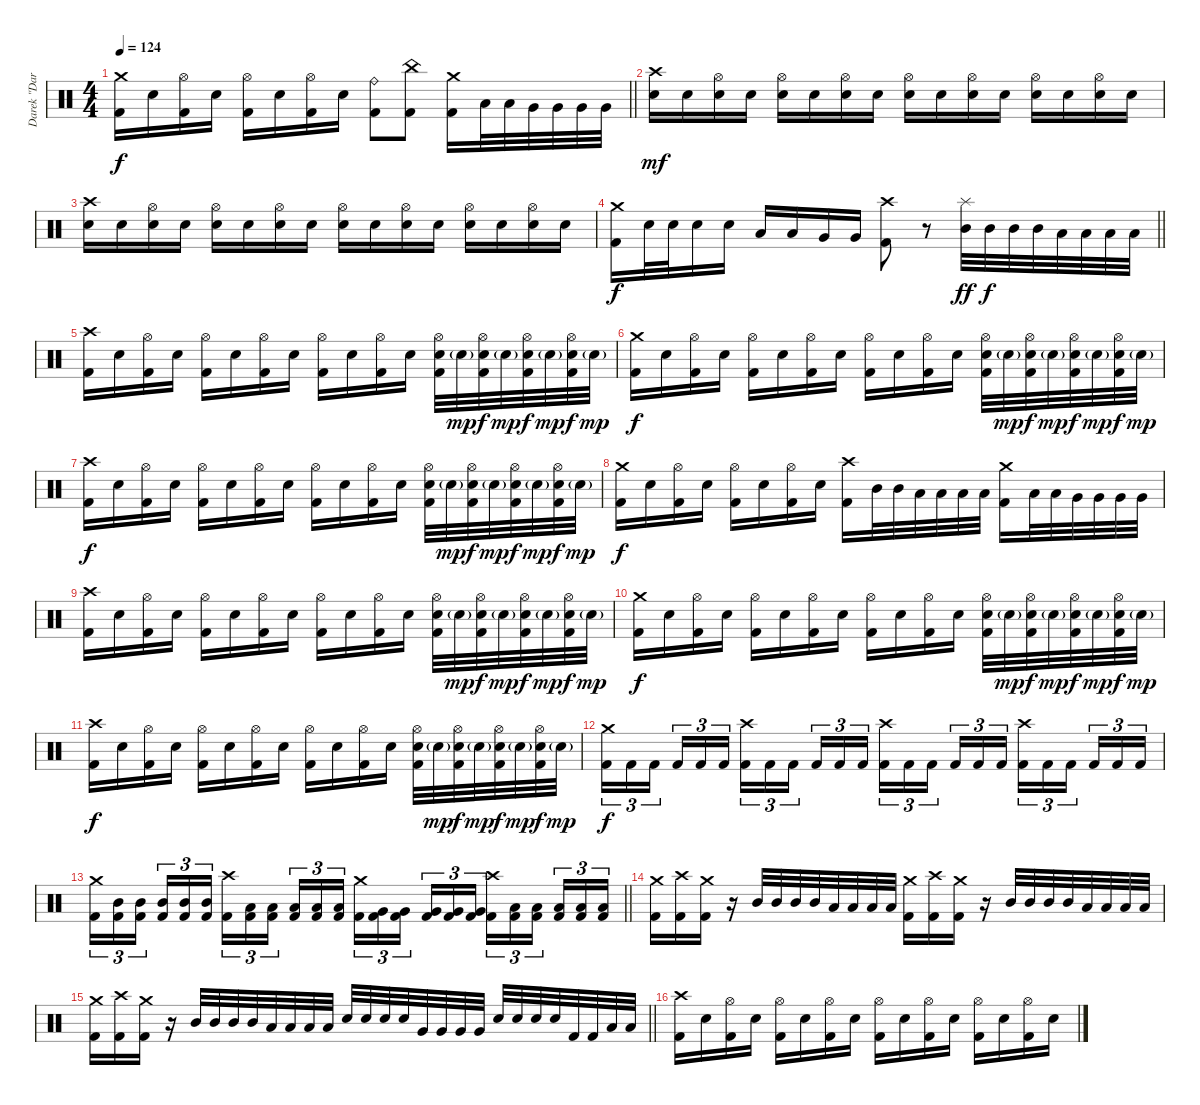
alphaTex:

\track ("Darek \"Daray\" Brzozowski " "Darek \"Dar") {instrument percussion}
\staff {score}
\articulation defaults
\ts (4 4)
\tempo 124
\clef neutral
\barLineRight lightlight
\ks c
("Crash medium (hit)" "Kick (hit) 2").16{dy f} "Electric Snare (hit)".16 ("Hi-Hat (open)" "Kick (hit) 2").16 "Electric Snare (hit)".16 ("Hi-Hat (open)" "Kick (hit) 2").16 "Electric Snare (hit)".16 ("Hi-Hat (open)" "Kick (hit) 2").16 "Electric Snare (hit)".16 ("Ride (bell)" "Kick (hit) 2").8 ("China (hit)" "Kick (hit) 2").8 ("Crash medium (hit)" "Kick (hit) 2").16 "Low Tom (hit)".32 "Low Tom (hit)".32 "Very Low Tom (hit)".32 "Very Low Tom (hit)".32 "Very Low Tom (hit)".32 "Very Low Tom (hit)".32 |
("Crash high (hit)" "Electric Snare (hit)").16{dy mf} "Electric Snare (hit)".16 ("Hi-Hat (open)" "Electric Snare (hit)").16 "Electric Snare (hit)".16 ("Hi-Hat (open)" "Electric Snare (hit)").16 "Electric Snare (hit)".16 ("Hi-Hat (open)" "Electric Snare (hit)").16 "Electric Snare (hit)".16 ("Hi-Hat (open)" "Electric Snare (hit)").16 "Electric Snare (hit)".16 ("Hi-Hat (open)" "Electric Snare (hit)").16 "Electric Snare (hit)".16 ("Hi-Hat (open)" "Electric Snare (hit)").16 "Electric Snare (hit)".16 ("Hi-Hat (open)" "Electric Snare (hit)").16 "Electric Snare (hit)".16 |
("Crash high (hit)" "Electric Snare (hit)").16 "Electric Snare (hit)".16 ("Hi-Hat (open)" "Electric Snare (hit)").16 "Electric Snare (hit)".16 ("Hi-Hat (open)" "Electric Snare (hit)").16 "Electric Snare (hit)".16 ("Hi-Hat (open)" "Electric Snare (hit)").16 "Electric Snare (hit)".16 ("Hi-Hat (open)" "Electric Snare (hit)").16 "Electric Snare (hit)".16 ("Hi-Hat (open)" "Electric Snare (hit)").16 "Electric Snare (hit)".16 ("Hi-Hat (open)" "Electric Snare (hit)").16 "Electric Snare (hit)".16 ("Hi-Hat (open)" "Electric Snare (hit)").16 "Electric Snare (hit)".16 |
\barLineRight lightlight
("Crash medium (hit)" "Kick (hit) 2").16{dy f} "Electric Snare (hit)".32 "Electric Snare (hit)".32 "Electric Snare (hit)".16 "Electric Snare (hit)".16 "Low Tom (hit)".16 "Low Tom (hit)".16 "Very Low Tom (hit)".16 "Very Low Tom (hit)".16 ("Crash high (hit)" "Kick (hit) 2").8 r.8 ("Splash (hit)" "Mid Tom (hit)").32{dy ff} "Mid Tom (hit)".32{dy f} "Mid Tom (hit)".32 "Mid Tom (hit)".32 "Low Tom (hit)".32 "Low Tom (hit)".32 "Low Tom (hit)".32 "Low Tom (hit)".32 |
("Crash high (hit)" "Kick (hit) 2").16 "Electric Snare (hit)".16 ("Hi-Hat (open)" "Kick (hit) 2").16 "Electric Snare (hit)".16 ("Hi-Hat (open)" "Kick (hit) 2").16 "Electric Snare (hit)".16 ("Hi-Hat (open)" "Kick (hit) 2").16 "Electric Snare (hit)".16 ("Hi-Hat (open)" "Kick (hit) 2").16 "Electric Snare (hit)".16 ("Hi-Hat (open)" "Kick (hit) 2").16 "Electric Snare (hit)".16 ("Hi-Hat (open)" "Electric Snare (hit)" "Kick (hit) 2").32 "Electric Snare (hit)"{g}.32{dy mp} ("Hi-Hat (open)" "Electric Snare (hit)" "Kick (hit) 2").32{dy f} "Electric Snare (hit)"{g}.32{dy mp} ("Hi-Hat (open)" "Electric Snare (hit)" "Kick (hit) 2").32{dy f} "Electric Snare (hit)"{g}.32{dy mp} ("Hi-Hat (open)" "Electric Snare (hit)" "Kick (hit) 2").32{dy f} "Electric Snare (hit)"{g}.32{dy mp} |
("Crash medium (hit)" "Kick (hit) 2").16{dy f} "Electric Snare (hit)".16 ("Hi-Hat (open)" "Kick (hit) 2").16 "Electric Snare (hit)".16 ("Hi-Hat (open)" "Kick (hit) 2").16 "Electric Snare (hit)".16 ("Hi-Hat (open)" "Kick (hit) 2").16 "Electric Snare (hit)".16 ("Hi-Hat (open)" "Kick (hit) 2").16 "Electric Snare (hit)".16 ("Hi-Hat (open)" "Kick (hit) 2").16 "Electric Snare (hit)".16 ("Hi-Hat (open)" "Electric Snare (hit)" "Kick (hit) 2").32 "Electric Snare (hit)"{g}.32{dy mp} ("Hi-Hat (open)" "Electric Snare (hit)" "Kick (hit) 2").32{dy f} "Electric Snare (hit)"{g}.32{dy mp} ("Hi-Hat (open)" "Electric Snare (hit)" "Kick (hit) 2").32{dy f} "Electric Snare (hit)"{g}.32{dy mp} ("Hi-Hat (open)" "Electric Snare (hit)" "Kick (hit) 2").32{dy f} "Electric Snare (hit)"{g}.32{dy mp} |
("Crash high (hit)" "Kick (hit) 2").16{dy f} "Electric Snare (hit)".16 ("Hi-Hat (open)" "Kick (hit) 2").16 "Electric Snare (hit)".16 ("Hi-Hat (open)" "Kick (hit) 2").16 "Electric Snare (hit)".16 ("Hi-Hat (open)" "Kick (hit) 2").16 "Electric Snare (hit)".16 ("Hi-Hat (open)" "Kick (hit) 2").16 "Electric Snare (hit)".16 ("Hi-Hat (open)" "Kick (hit) 2").16 "Electric Snare (hit)".16 ("Hi-Hat (open)" "Electric Snare (hit)" "Kick (hit) 2").32 "Electric Snare (hit)"{g}.32{dy mp} ("Hi-Hat (open)" "Electric Snare (hit)" "Kick (hit) 2").32{dy f} "Electric Snare (hit)"{g}.32{dy mp} ("Hi-Hat (open)" "Electric Snare (hit)" "Kick (hit) 2").32{dy f} "Electric Snare (hit)"{g}.32{dy mp} ("Hi-Hat (open)" "Electric Snare (hit)" "Kick (hit) 2").32{dy f} "Electric Snare (hit)"{g}.32{dy mp} |
("Crash medium (hit)" "Kick (hit) 2").16{dy f} "Electric Snare (hit)".16 ("Hi-Hat (open)" "Kick (hit) 2").16 "Electric Snare (hit)".16 ("Hi-Hat (open)" "Kick (hit) 2").16 "Electric Snare (hit)".16 ("Hi-Hat (open)" "Kick (hit) 2").16 "Electric Snare (hit)".16 ("Crash high (hit)" "Kick (hit) 2").16 "Mid Tom (hit)".32 "Mid Tom (hit)".32 "Low Tom (hit)".32 "Low Tom (hit)".32 "Low Tom (hit)".32 "Low Tom (hit)".32 ("Crash medium (hit)" "Kick (hit) 2").16 "Low Tom (hit)".32 "Low Tom (hit)".32 "Very Low Tom (hit)".32 "Very Low Tom (hit)".32 "Very Low Tom (hit)".32 "Very Low Tom (hit)".32 |
("Crash high (hit)" "Kick (hit) 2").16 "Electric Snare (hit)".16 ("Hi-Hat (open)" "Kick (hit) 2").16 "Electric Snare (hit)".16 ("Hi-Hat (open)" "Kick (hit) 2").16 "Electric Snare (hit)".16 ("Hi-Hat (open)" "Kick (hit) 2").16 "Electric Snare (hit)".16 ("Hi-Hat (open)" "Kick (hit) 2").16 "Electric Snare (hit)".16 ("Hi-Hat (open)" "Kick (hit) 2").16 "Electric Snare (hit)".16 ("Hi-Hat (open)" "Electric Snare (hit)" "Kick (hit) 2").32 "Electric Snare (hit)"{g}.32{dy mp} ("Hi-Hat (open)" "Electric Snare (hit)" "Kick (hit) 2").32{dy f} "Electric Snare (hit)"{g}.32{dy mp} ("Hi-Hat (open)" "Electric Snare (hit)" "Kick (hit) 2").32{dy f} "Electric Snare (hit)"{g}.32{dy mp} ("Hi-Hat (open)" "Electric Snare (hit)" "Kick (hit) 2").32{dy f} "Electric Snare (hit)"{g}.32{dy mp} |
("Crash medium (hit)" "Kick (hit) 2").16{dy f} "Electric Snare (hit)".16 ("Hi-Hat (open)" "Kick (hit) 2").16 "Electric Snare (hit)".16 ("Hi-Hat (open)" "Kick (hit) 2").16 "Electric Snare (hit)".16 ("Hi-Hat (open)" "Kick (hit) 2").16 "Electric Snare (hit)".16 ("Hi-Hat (open)" "Kick (hit) 2").16 "Electric Snare (hit)".16 ("Hi-Hat (open)" "Kick (hit) 2").16 "Electric Snare (hit)".16 ("Hi-Hat (open)" "Electric Snare (hit)" "Kick (hit) 2").32 "Electric Snare (hit)"{g}.32{dy mp} ("Hi-Hat (open)" "Electric Snare (hit)" "Kick (hit) 2").32{dy f} "Electric Snare (hit)"{g}.32{dy mp} ("Hi-Hat (open)" "Electric Snare (hit)" "Kick (hit) 2").32{dy f} "Electric Snare (hit)"{g}.32{dy mp} ("Hi-Hat (open)" "Electric Snare (hit)" "Kick (hit) 2").32{dy f} "Electric Snare (hit)"{g}.32{dy mp} |
("Crash high (hit)" "Kick (hit) 2").16{dy f} "Electric Snare (hit)".16 ("Hi-Hat (open)" "Kick (hit) 2").16 "Electric Snare (hit)".16 ("Hi-Hat (open)" "Kick (hit) 2").16 "Electric Snare (hit)".16 ("Hi-Hat (open)" "Kick (hit) 2").16 "Electric Snare (hit)".16 ("Hi-Hat (open)" "Kick (hit) 2").16 "Electric Snare (hit)".16 ("Hi-Hat (open)" "Kick (hit) 2").16 "Electric Snare (hit)".16 ("Hi-Hat (open)" "Electric Snare (hit)" "Kick (hit) 2").32 "Electric Snare (hit)"{g}.32{dy mp} ("Hi-Hat (open)" "Electric Snare (hit)" "Kick (hit) 2").32{dy f} "Electric Snare (hit)"{g}.32{dy mp} ("Hi-Hat (open)" "Electric Snare (hit)" "Kick (hit) 2").32{dy f} "Electric Snare (hit)"{g}.32{dy mp} ("Hi-Hat (open)" "Electric Snare (hit)" "Kick (hit) 2").32{dy f} "Electric Snare (hit)"{g}.32{dy mp} |
("Crash medium (hit)" "Kick (hit) 2").16{tu (3 2) dy f} "Kick (hit) 2".16{tu (3 2)} "Kick (hit) 2".16{tu (3 2) beam splitsecondary} "Kick (hit) 2".16{tu (3 2)} "Kick (hit) 2".16{tu (3 2)} "Kick (hit) 2".16{tu (3 2)} ("Crash high (hit)" "Kick (hit) 2").16{tu (3 2)} "Kick (hit) 2".16{tu (3 2)} "Kick (hit) 2".16{tu (3 2) beam splitsecondary} "Kick (hit) 2".16{tu (3 2)} "Kick (hit) 2".16{tu (3 2)} "Kick (hit) 2".16{tu (3 2)} ("Crash high (hit)" "Kick (hit) 2").16{tu (3 2)} "Kick (hit) 2".16{tu (3 2)} "Kick (hit) 2".16{tu (3 2) beam splitsecondary} "Kick (hit) 2".16{tu (3 2)} "Kick (hit) 2".16{tu (3 2)} "Kick (hit) 2".16{tu (3 2)} ("Crash high (hit)" "Kick (hit) 2").16{tu (3 2)} "Kick (hit) 2".16{tu (3 2)} "Kick (hit) 2".16{tu (3 2) beam splitsecondary} "Kick (hit) 2".16{tu (3 2)} "Kick (hit) 2".16{tu (3 2)} "Kick (hit) 2".16{tu (3 2)} |
\barLineRight lightlight
("Crash medium (hit)" "Kick (hit) 2").16{tu (3 2)} ("Mid Tom (hit)" "Kick (hit) 2").16{tu (3 2)} ("Mid Tom (hit)" "Kick (hit) 2").16{tu (3 2) beam splitsecondary} ("Mid Tom (hit)" "Kick (hit) 2").16{tu (3 2)} ("Mid Tom (hit)" "Kick (hit) 2").16{tu (3 2)} ("Mid Tom (hit)" "Kick (hit) 2").16{tu (3 2)} ("Crash high (hit)" "Kick (hit) 2").16{tu (3 2)} ("Low Tom (hit)" "Kick (hit) 2").16{tu (3 2)} ("Low Tom (hit)" "Kick (hit) 2").16{tu (3 2) beam splitsecondary} ("Low Tom (hit)" "Kick (hit) 2").16{tu (3 2)} ("Low Tom (hit)" "Kick (hit) 2").16{tu (3 2)} ("Low Tom (hit)" "Kick (hit) 2").16{tu (3 2)} ("Crash medium (hit)" "Kick (hit) 2").16{tu (3 2)} ("Very Low Tom (hit)" "Kick (hit) 2").16{tu (3 2)} ("Very Low Tom (hit)" "Kick (hit) 2").16{tu (3 2) beam splitsecondary} ("Very Low Tom (hit)" "Kick (hit) 2").16{tu (3 2)} ("Very Low Tom (hit)" "Kick (hit) 2").16{tu (3 2)} ("Very Low Tom (hit)" "Kick (hit) 2").16{tu (3 2)} ("Crash high (hit)" "Kick (hit) 2").16{tu (3 2)} ("Low Floor Tom (hit)" "Kick (hit) 2").16{tu (3 2)} ("Low Floor Tom (hit)" "Kick (hit) 2").16{tu (3 2) beam splitsecondary} ("Low Floor Tom (hit)" "Kick (hit) 2").16{tu (3 2)} ("Low Floor Tom (hit)" "Kick (hit) 2").16{tu (3 2)} ("Low Floor Tom (hit)" "Kick (hit) 2").16{tu (3 2)} |
("Crash medium (hit)" "Kick (hit) 2").16 ("Crash high (hit)" "Kick (hit) 2").16 ("Crash medium (hit)" "Kick (hit) 2").16 r.16 "Mid Tom (hit)".32 "Mid Tom (hit)".32 "Mid Tom (hit)".32 "Mid Tom (hit)".32 "Low Tom (hit)".32 "Low Tom (hit)".32 "Low Tom (hit)".32 "Low Tom (hit)".32 ("Crash medium (hit)" "Kick (hit) 2").16 ("Crash high (hit)" "Kick (hit) 2").16 ("Crash medium (hit)" "Kick (hit) 2").16 r.16 "Mid Tom (hit)".32 "Mid Tom (hit)".32 "Mid Tom (hit)".32 "Mid Tom (hit)".32 "Low Tom (hit)".32 "Low Tom (hit)".32 "Low Tom (hit)".32 "Low Tom (hit)".32 |
\barLineRight lightlight
("Crash medium (hit)" "Kick (hit) 2").16 ("Crash high (hit)" "Kick (hit) 2").16 ("Crash medium (hit)" "Kick (hit) 2").16 r.16 "Mid Tom (hit)".32 "Mid Tom (hit)".32 "Mid Tom (hit)".32 "Mid Tom (hit)".32 "Low Tom (hit)".32 "Low Tom (hit)".32 "Low Tom (hit)".32 "Low Tom (hit)".32 "Electric Snare (hit)".32 "Electric Snare (hit)".32 "Electric Snare (hit)".32 "Electric Snare (hit)".32 "Very Low Tom (hit)".32 "Very Low Tom (hit)".32 "Very Low Tom (hit)".32 "Very Low Tom (hit)".32 "Electric Snare (hit)".32 "Electric Snare (hit)".32 "Electric Snare (hit)".32 "Electric Snare (hit)".32 "Kick (hit) 2".32 "Kick (hit) 2".32 "Low Floor Tom (hit)".32 "Low Floor Tom (hit)".32 |
("Crash high (hit)" "Kick (hit) 2").16 "Electric Snare (hit)".16 ("Hi-Hat (open)" "Kick (hit) 2").16 "Electric Snare (hit)".16 ("Hi-Hat (open)" "Kick (hit) 2").16 "Electric Snare (hit)".16 ("Hi-Hat (open)" "Kick (hit) 2").16 "Electric Snare (hit)".16 ("Hi-Hat (open)" "Kick (hit) 2").16 "Electric Snare (hit)".16 ("Hi-Hat (open)" "Kick (hit) 2").16 "Electric Snare (hit)".16 ("Hi-Hat (open)" "Kick (hit) 2").16 "Electric Snare (hit)".16 ("Hi-Hat (open)" "Kick (hit) 2").16 "Electric Snare (hit)".16
